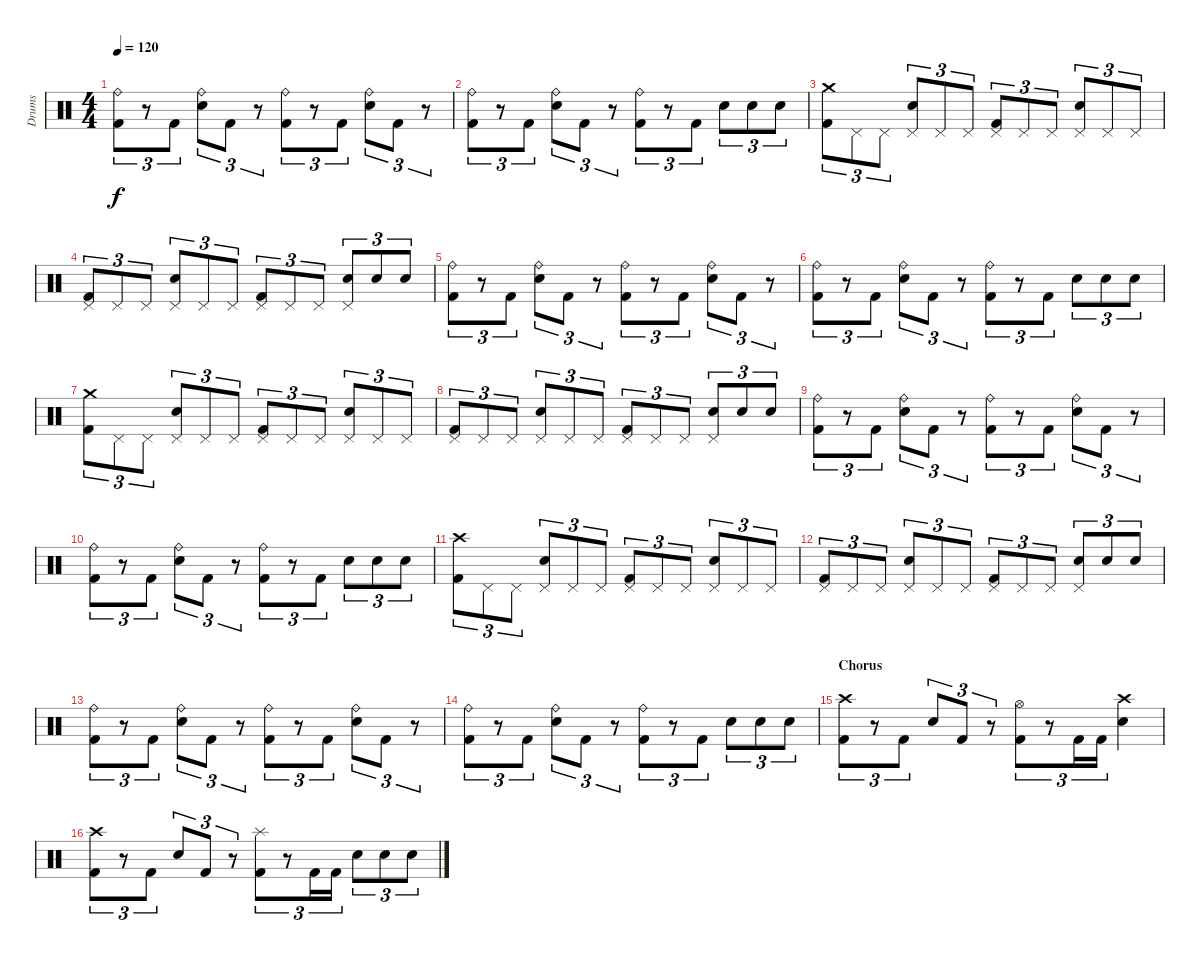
\track ("Drums" "Drums") {instrument percussion}
\staff {score}
\articulation defaults
\ts (4 4)
\tempo 120
\clef neutral
\ks c
("Ride (bell)" "Kick (hit) 2").8{tu (3 2) dy f} r.8{tu (3 2)} "Kick (hit) 2".8{tu (3 2)} ("Ride (bell)" "Snare (hit) 2").8{tu (3 2)} "Kick (hit) 2".8{tu (3 2)} r.8{tu (3 2)} ("Ride (bell)" "Kick (hit) 2").8{tu (3 2)} r.8{tu (3 2)} "Kick (hit) 2".8{tu (3 2)} ("Ride (bell)" "Snare (hit) 2").8{tu (3 2)} "Kick (hit) 2".8{tu (3 2)} r.8{tu (3 2)} |
("Ride (bell)" "Kick (hit) 2").8{tu (3 2)} r.8{tu (3 2)} "Kick (hit) 2".8{tu (3 2)} ("Ride (bell)" "Snare (hit) 2").8{tu (3 2)} "Kick (hit) 2".8{tu (3 2)} r.8{tu (3 2)} ("Ride (bell)" "Kick (hit) 2").8{tu (3 2)} r.8{tu (3 2)} "Kick (hit) 2".8{tu (3 2)} "Snare (hit) 2".8{tu (3 2)} "Snare (hit) 2".8{tu (3 2)} "Snare (hit) 2".8{tu (3 2)} |
("Crash medium (hit)" "Kick (hit) 2").8{tu (3 2)} "Pedal Hi-Hat (hit)".8{tu (3 2)} "Pedal Hi-Hat (hit)".8{tu (3 2)} ("Pedal Hi-Hat (hit)" "Snare (hit) 2").8{tu (3 2)} "Pedal Hi-Hat (hit)".8{tu (3 2)} "Pedal Hi-Hat (hit)".8{tu (3 2)} ("Pedal Hi-Hat (hit)" "Kick (hit) 2").8{tu (3 2)} "Pedal Hi-Hat (hit)".8{tu (3 2)} "Pedal Hi-Hat (hit)".8{tu (3 2)} ("Pedal Hi-Hat (hit)" "Snare (hit) 2").8{tu (3 2)} "Pedal Hi-Hat (hit)".8{tu (3 2)} "Pedal Hi-Hat (hit)".8{tu (3 2)} |
("Pedal Hi-Hat (hit)" "Kick (hit) 2").8{tu (3 2)} "Pedal Hi-Hat (hit)".8{tu (3 2)} "Pedal Hi-Hat (hit)".8{tu (3 2)} ("Pedal Hi-Hat (hit)" "Snare (hit) 2").8{tu (3 2)} "Pedal Hi-Hat (hit)".8{tu (3 2)} "Pedal Hi-Hat (hit)".8{tu (3 2)} ("Pedal Hi-Hat (hit)" "Kick (hit) 2").8{tu (3 2)} "Pedal Hi-Hat (hit)".8{tu (3 2)} "Pedal Hi-Hat (hit)".8{tu (3 2)} ("Pedal Hi-Hat (hit)" "Snare (hit) 2").8{tu (3 2)} "Snare (hit) 2".8{tu (3 2)} "Snare (hit) 2".8{tu (3 2)} |
("Ride (bell)" "Kick (hit) 2").8{tu (3 2)} r.8{tu (3 2)} "Kick (hit) 2".8{tu (3 2)} ("Ride (bell)" "Snare (hit) 2").8{tu (3 2)} "Kick (hit) 2".8{tu (3 2)} r.8{tu (3 2)} ("Ride (bell)" "Kick (hit) 2").8{tu (3 2)} r.8{tu (3 2)} "Kick (hit) 2".8{tu (3 2)} ("Ride (bell)" "Snare (hit) 2").8{tu (3 2)} "Kick (hit) 2".8{tu (3 2)} r.8{tu (3 2)} |
("Ride (bell)" "Kick (hit) 2").8{tu (3 2)} r.8{tu (3 2)} "Kick (hit) 2".8{tu (3 2)} ("Ride (bell)" "Snare (hit) 2").8{tu (3 2)} "Kick (hit) 2".8{tu (3 2)} r.8{tu (3 2)} ("Ride (bell)" "Kick (hit) 2").8{tu (3 2)} r.8{tu (3 2)} "Kick (hit) 2".8{tu (3 2)} "Snare (hit) 2".8{tu (3 2)} "Snare (hit) 2".8{tu (3 2)} "Snare (hit) 2".8{tu (3 2)} |
("Crash medium (hit)" "Kick (hit) 2").8{tu (3 2)} "Pedal Hi-Hat (hit)".8{tu (3 2)} "Pedal Hi-Hat (hit)".8{tu (3 2)} ("Pedal Hi-Hat (hit)" "Snare (hit) 2").8{tu (3 2)} "Pedal Hi-Hat (hit)".8{tu (3 2)} "Pedal Hi-Hat (hit)".8{tu (3 2)} ("Pedal Hi-Hat (hit)" "Kick (hit) 2").8{tu (3 2)} "Pedal Hi-Hat (hit)".8{tu (3 2)} "Pedal Hi-Hat (hit)".8{tu (3 2)} ("Pedal Hi-Hat (hit)" "Snare (hit) 2").8{tu (3 2)} "Pedal Hi-Hat (hit)".8{tu (3 2)} "Pedal Hi-Hat (hit)".8{tu (3 2)} |
("Pedal Hi-Hat (hit)" "Kick (hit) 2").8{tu (3 2)} "Pedal Hi-Hat (hit)".8{tu (3 2)} "Pedal Hi-Hat (hit)".8{tu (3 2)} ("Pedal Hi-Hat (hit)" "Snare (hit) 2").8{tu (3 2)} "Pedal Hi-Hat (hit)".8{tu (3 2)} "Pedal Hi-Hat (hit)".8{tu (3 2)} ("Pedal Hi-Hat (hit)" "Kick (hit) 2").8{tu (3 2)} "Pedal Hi-Hat (hit)".8{tu (3 2)} "Pedal Hi-Hat (hit)".8{tu (3 2)} ("Pedal Hi-Hat (hit)" "Snare (hit) 2").8{tu (3 2)} "Snare (hit) 2".8{tu (3 2)} "Snare (hit) 2".8{tu (3 2)} |
("Ride (bell)" "Kick (hit) 2").8{tu (3 2)} r.8{tu (3 2)} "Kick (hit) 2".8{tu (3 2)} ("Ride (bell)" "Snare (hit) 2").8{tu (3 2)} "Kick (hit) 2".8{tu (3 2)} r.8{tu (3 2)} ("Ride (bell)" "Kick (hit) 2").8{tu (3 2)} r.8{tu (3 2)} "Kick (hit) 2".8{tu (3 2)} ("Ride (bell)" "Snare (hit) 2").8{tu (3 2)} "Kick (hit) 2".8{tu (3 2)} r.8{tu (3 2)} |
("Ride (bell)" "Kick (hit) 2").8{tu (3 2)} r.8{tu (3 2)} "Kick (hit) 2".8{tu (3 2)} ("Ride (bell)" "Snare (hit) 2").8{tu (3 2)} "Kick (hit) 2".8{tu (3 2)} r.8{tu (3 2)} ("Ride (bell)" "Kick (hit) 2").8{tu (3 2)} r.8{tu (3 2)} "Kick (hit) 2".8{tu (3 2)} "Snare (hit) 2".8{tu (3 2)} "Snare (hit) 2".8{tu (3 2)} "Snare (hit) 2".8{tu (3 2)} |
("Crash high (hit)" "Kick (hit) 2").8{tu (3 2)} "Pedal Hi-Hat (hit)".8{tu (3 2)} "Pedal Hi-Hat (hit)".8{tu (3 2)} ("Pedal Hi-Hat (hit)" "Snare (hit) 2").8{tu (3 2)} "Pedal Hi-Hat (hit)".8{tu (3 2)} "Pedal Hi-Hat (hit)".8{tu (3 2)} ("Pedal Hi-Hat (hit)" "Kick (hit) 2").8{tu (3 2)} "Pedal Hi-Hat (hit)".8{tu (3 2)} "Pedal Hi-Hat (hit)".8{tu (3 2)} ("Pedal Hi-Hat (hit)" "Snare (hit) 2").8{tu (3 2)} "Pedal Hi-Hat (hit)".8{tu (3 2)} "Pedal Hi-Hat (hit)".8{tu (3 2)} |
("Pedal Hi-Hat (hit)" "Kick (hit) 2").8{tu (3 2)} "Pedal Hi-Hat (hit)".8{tu (3 2)} "Pedal Hi-Hat (hit)".8{tu (3 2)} ("Pedal Hi-Hat (hit)" "Snare (hit) 2").8{tu (3 2)} "Pedal Hi-Hat (hit)".8{tu (3 2)} "Pedal Hi-Hat (hit)".8{tu (3 2)} ("Pedal Hi-Hat (hit)" "Kick (hit) 2").8{tu (3 2)} "Pedal Hi-Hat (hit)".8{tu (3 2)} "Pedal Hi-Hat (hit)".8{tu (3 2)} ("Pedal Hi-Hat (hit)" "Snare (hit) 2").8{tu (3 2)} "Snare (hit) 2".8{tu (3 2)} "Snare (hit) 2".8{tu (3 2)} |
("Ride (bell)" "Kick (hit) 2").8{tu (3 2)} r.8{tu (3 2)} "Kick (hit) 2".8{tu (3 2)} ("Ride (bell)" "Snare (hit) 2").8{tu (3 2)} "Kick (hit) 2".8{tu (3 2)} r.8{tu (3 2)} ("Ride (bell)" "Kick (hit) 2").8{tu (3 2)} r.8{tu (3 2)} "Kick (hit) 2".8{tu (3 2)} ("Ride (bell)" "Snare (hit) 2").8{tu (3 2)} "Kick (hit) 2".8{tu (3 2)} r.8{tu (3 2)} |
("Ride (bell)" "Kick (hit) 2").8{tu (3 2)} r.8{tu (3 2)} "Kick (hit) 2".8{tu (3 2)} ("Ride (bell)" "Snare (hit) 2").8{tu (3 2)} "Kick (hit) 2".8{tu (3 2)} r.8{tu (3 2)} ("Ride (bell)" "Kick (hit) 2").8{tu (3 2)} r.8{tu (3 2)} "Kick (hit) 2".8{tu (3 2)} "Snare (hit) 2".8{tu (3 2)} "Snare (hit) 2".8{tu (3 2)} "Snare (hit) 2".8{tu (3 2)} |
\section ("" "Chorus")
("Crash high (hit)" "Kick (hit) 2").8{tu (3 2)} r.8{tu (3 2)} "Kick (hit) 2".8{tu (3 2)} "Snare (hit) 2".8{tu (3 2)} "Kick (hit) 2".8{tu (3 2)} r.8{tu (3 2)} ("Hi-Hat (open)" "Kick (hit) 2").8{tu (3 2)} r.8{tu (3 2)} "Kick (hit) 2".16{tu (3 2)} "Kick (hit) 2".16{tu (3 2)} ("Crash high (hit)" "Snare (hit) 2").4 |
("Crash high (hit)" "Kick (hit) 2").8{tu (3 2)} r.8{tu (3 2)} "Kick (hit) 2".8{tu (3 2)} "Snare (hit) 2".8{tu (3 2)} "Kick (hit) 2".8{tu (3 2)} r.8{tu (3 2)} ("Splash (hit)" "Kick (hit) 2").8{tu (3 2)} r.8{tu (3 2)} "Kick (hit) 2".16{tu (3 2)} "Kick (hit) 2".16{tu (3 2)} "Snare (hit) 2".8{tu (3 2)} "Snare (hit) 2".8{tu (3 2)} "Snare (hit) 2".8{tu (3 2)}
